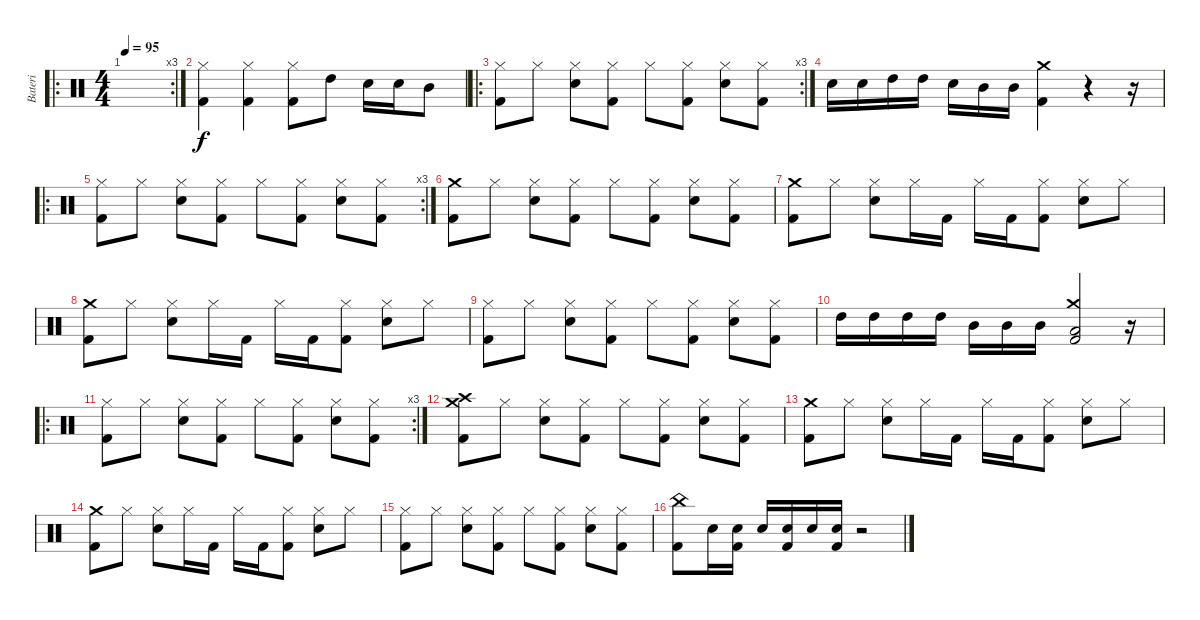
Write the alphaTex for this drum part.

\track ("Bateri" "Bateri") {instrument percussion}
\staff {score}
\articulation defaults
\ro
\rc 3
\ts (4 4)
\tempo 95
\clef neutral
\ks c
|
("Kick (hit) 2" "Hi-Hat (closed)").4 ("Kick (hit) 2" "Hi-Hat (closed)").4 ("Kick (hit) 2" "Hi-Hat (closed)").8 "High Tom (hit)".8 "Snare (hit) 2".16 "Snare (hit) 2".16 "Mid Tom (hit)".8 |
\ro
\rc 3
("Kick (hit) 2" "Hi-Hat (closed)").8 "Hi-Hat (closed)".8 ("Snare (hit) 2" "Hi-Hat (closed)").8 ("Kick (hit) 2" "Hi-Hat (closed)").8 "Hi-Hat (closed)".8 ("Kick (hit) 2" "Hi-Hat (closed)").8 ("Snare (hit) 2" "Hi-Hat (closed)").8 ("Kick (hit) 2" "Hi-Hat (closed)").8 |
"Snare (hit) 2".16 "Snare (hit) 2".16 "High Tom (hit)".16 "High Tom (hit)".16 "Snare (hit) 2".16 "Mid Tom (hit)".16 "Mid Tom (hit)".16 ("Kick (hit) 2" "Crash medium (hit)").4 r.4 r.16 |
\ro
\rc 3
("Kick (hit) 2" "Hi-Hat (closed)").8 "Hi-Hat (closed)".8 ("Snare (hit) 2" "Hi-Hat (closed)").8 ("Kick (hit) 2" "Hi-Hat (closed)").8 "Hi-Hat (closed)".8 ("Kick (hit) 2" "Hi-Hat (closed)").8 ("Snare (hit) 2" "Hi-Hat (closed)").8 ("Kick (hit) 2" "Hi-Hat (closed)").8 |
("Kick (hit) 2" "Crash medium (hit)").8 "Hi-Hat (closed)".8 ("Snare (hit) 2" "Hi-Hat (closed)").8 ("Kick (hit) 2" "Hi-Hat (closed)").8 "Hi-Hat (closed)".8 ("Kick (hit) 2" "Hi-Hat (closed)").8 ("Snare (hit) 2" "Hi-Hat (closed)").8 ("Kick (hit) 2" "Hi-Hat (closed)").8 |
("Crash medium (hit)" "Kick (hit) 2").8 "Hi-Hat (closed)".8 ("Hi-Hat (closed)" "Snare (hit) 2").8 "Hi-Hat (closed)".16 "Kick (hit) 2".16 "Hi-Hat (closed)".16 "Kick (hit) 2".16 ("Hi-Hat (closed)" "Kick (hit) 2").8 ("Hi-Hat (closed)" "Snare (hit) 2").8 "Hi-Hat (closed)".8 |
("Crash medium (hit)" "Kick (hit) 2").8 "Hi-Hat (closed)".8 ("Hi-Hat (closed)" "Snare (hit) 2").8 "Hi-Hat (closed)".16 "Kick (hit) 2".16 "Hi-Hat (closed)".16 "Kick (hit) 2".16 ("Hi-Hat (closed)" "Kick (hit) 2").8 ("Hi-Hat (closed)" "Snare (hit) 2").8 "Hi-Hat (closed)".8 |
("Kick (hit) 2" "Hi-Hat (closed)").8 "Hi-Hat (closed)".8 ("Snare (hit) 2" "Hi-Hat (closed)").8 ("Kick (hit) 2" "Hi-Hat (closed)").8 "Hi-Hat (closed)".8 ("Kick (hit) 2" "Hi-Hat (closed)").8 ("Snare (hit) 2" "Hi-Hat (closed)").8 ("Kick (hit) 2" "Hi-Hat (closed)").8 |
"High Tom (hit)".16 "High Tom (hit)".16 "High Tom (hit)".16 "High Tom (hit)".16 "Mid Tom (hit)".16 "Mid Tom (hit)".16 "Mid Tom (hit)".16 ("Crash medium (hit)" "Kick (hit) 2" "Low Tom (hit)").2 r.16 |
\ro
\rc 3
("Kick (hit) 2" "Hi-Hat (closed)").8 "Hi-Hat (closed)".8 ("Snare (hit) 2" "Hi-Hat (closed)").8 ("Kick (hit) 2" "Hi-Hat (closed)").8 "Hi-Hat (closed)".8 ("Kick (hit) 2" "Hi-Hat (closed)").8 ("Snare (hit) 2" "Hi-Hat (closed)").8 ("Kick (hit) 2" "Hi-Hat (closed)").8 |
("Kick (hit) 2" "Crash high (hit)" "Crash medium (hit)").8 "Hi-Hat (closed)".8 ("Snare (hit) 2" "Hi-Hat (closed)").8 ("Kick (hit) 2" "Hi-Hat (closed)").8 "Hi-Hat (closed)".8 ("Kick (hit) 2" "Hi-Hat (closed)").8 ("Snare (hit) 2" "Hi-Hat (closed)").8 ("Kick (hit) 2" "Hi-Hat (closed)").8 |
("Crash medium (hit)" "Kick (hit) 2").8 "Hi-Hat (closed)".8 ("Hi-Hat (closed)" "Snare (hit) 2").8 "Hi-Hat (closed)".16 "Kick (hit) 2".16 "Hi-Hat (closed)".16 "Kick (hit) 2".16 ("Hi-Hat (closed)" "Kick (hit) 2").8 ("Hi-Hat (closed)" "Snare (hit) 2").8 "Hi-Hat (closed)".8 |
("Crash medium (hit)" "Kick (hit) 2").8 "Hi-Hat (closed)".8 ("Hi-Hat (closed)" "Snare (hit) 2").8 "Hi-Hat (closed)".16 "Kick (hit) 2".16 "Hi-Hat (closed)".16 "Kick (hit) 2".16 ("Hi-Hat (closed)" "Kick (hit) 2").8 ("Hi-Hat (closed)" "Snare (hit) 2").8 "Hi-Hat (closed)".8 |
("Kick (hit) 2" "Hi-Hat (closed)").8 "Hi-Hat (closed)".8 ("Snare (hit) 2" "Hi-Hat (closed)").8 ("Kick (hit) 2" "Hi-Hat (closed)").8 "Hi-Hat (closed)".8 ("Kick (hit) 2" "Hi-Hat (closed)").8 ("Snare (hit) 2" "Hi-Hat (closed)").8 ("Kick (hit) 2" "Hi-Hat (closed)").8 |
("Kick (hit) 2" "China (hit)").8 "Snare (hit) 2".16 ("Kick (hit) 2" "Snare (hit) 2").16 "Snare (hit) 2".16 ("Kick (hit) 2" "Snare (hit) 2").16 "Snare (hit) 2".16 ("Kick (hit) 2" "Snare (hit) 2").16 r.2
